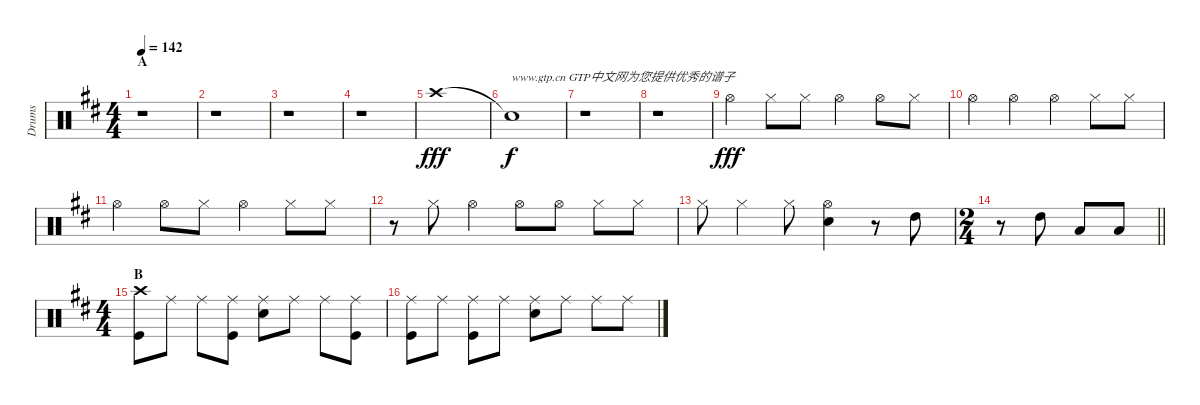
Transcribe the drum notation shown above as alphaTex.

\track ("Drums" "Drums") {instrument percussion}
\staff {score}
\articulation defaults
\ts (4 4)
\section ("" "A")
\tempo 142
\clef neutral
\ks d
r.1{dy fff} |
r.1 |
r.1 |
r.1 |
"Crash high (hit)".1 |
"Snare (hit)"{t}.1{txt "www.gtp.cn GTP中文网为您提供优秀的谱子" dy f} |
r.1 |
r.1 |
"Hi-Hat (open)".4{dy fff} "Hi-Hat (closed)".8 "Hi-Hat (closed)".8 "Hi-Hat (open)".4 "Hi-Hat (open)".8 "Hi-Hat (closed)".8 |
"Hi-Hat (open)".4 "Hi-Hat (open)".4 "Hi-Hat (open)".4 "Hi-Hat (closed)".8 "Hi-Hat (closed)".8 |
"Hi-Hat (open)".4 "Hi-Hat (open)".8 "Hi-Hat (closed)".8 "Hi-Hat (open)".4 "Hi-Hat (closed)".8 "Hi-Hat (closed)".8 |
r.8 "Hi-Hat (closed)".8 "Hi-Hat (open)".4 "Hi-Hat (open)".8 "Hi-Hat (open)".8 "Hi-Hat (closed)".8 "Hi-Hat (closed)".8 |
"Hi-Hat (closed)".8 "Hi-Hat (closed)".4 "Hi-Hat (closed)".8 ("Hi-Hat (open)" "Snare (hit) 2").4 r.8 "High Tom (hit)".8 |
\ts (2 4)
\barLineRight lightlight
r.8 "High Tom (hit)".8 "Low Tom (hit)".8 "Low Tom (hit)".8 |
\ts (4 4)
\section ("" "B")
("Crash high (hit)" "Kick (hit)").8 "Ride (middle)".8 "Ride (middle)".8 ("Ride (middle)" "Kick (hit)").8 ("Ride (middle)" "Snare (hit) 2").8 "Ride (middle)".8 "Ride (middle)".8 ("Ride (middle)" "Kick (hit)").8 |
("Ride (middle)" "Kick (hit)").8 "Ride (middle)".8 ("Ride (middle)" "Kick (hit)").8 "Ride (middle)".8 ("Ride (middle)" "Snare (hit) 2").8 "Ride (middle)".8 "Ride (middle)".8 "Ride (middle)".8
